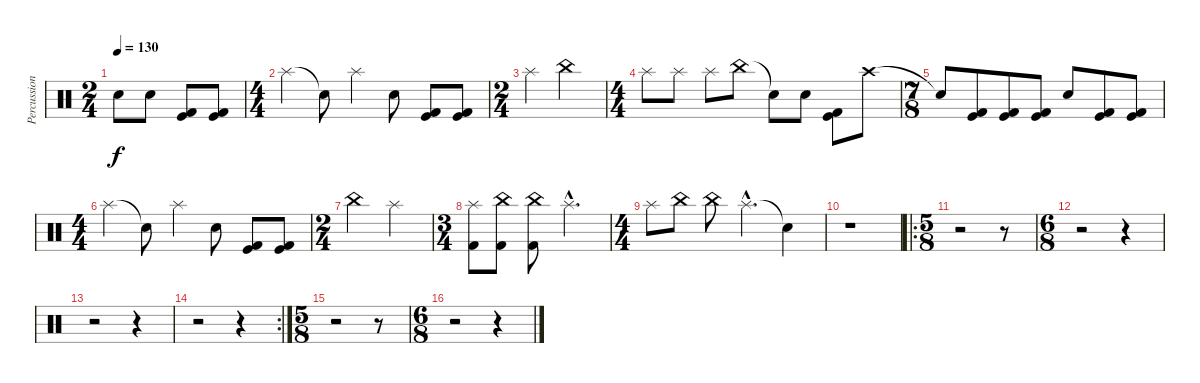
\track ("Percussion" "Percussion") {instrument percussion}
\staff {score}
\articulation defaults
\ts (2 4)
\tempo 130
\clef neutral
\ks c "Snare (hit)"{t}.8{dy f} "Snare (hit) 2".8
("Kick (hit)" "Kick (hit) 2").8 ("Kick (hit)" "Kick (hit) 2").8 |
\ts (4 4)
"Splash (hit)".4 "Snare (hit)"{t}.8 "Splash (hit)".4 "Snare (hit) 2".8 ("Kick (hit)" "Kick (hit) 2").8 ("Kick (hit)" "Kick (hit) 2").8 |
\ts (2 4)
"Splash (hit)".4 "China (hit)".4 |
\ts (4 4)
"Splash (hit)".8 "Splash (hit)".8 "Splash (hit)".8 "China (hit)".8 "Snare (hit)"{t}.8 "Snare (hit) 2".8 ("Kick (hit)" "Kick (hit) 2").8 "Crash high (hit)".8 |
\ts (7 8)
"Snare (hit)"{t}.8 ("Kick (hit)" "Kick (hit) 2").8 ("Kick (hit)" "Kick (hit) 2").8 ("Kick (hit)" "Kick (hit) 2").8 "Snare (hit) 2".8 ("Kick (hit)" "Kick (hit) 2").8 ("Kick (hit)" "Kick (hit) 2").8 |
\ts (4 4)
"Splash (hit)".4 "Snare (hit)"{t}.8 "Splash (hit)".4 "Snare (hit) 2".8 ("Kick (hit)" "Kick (hit) 2").8 ("Kick (hit)" "Kick (hit) 2").8 |
\ts (2 4)
"China (hit)".4 "Splash (hit)".4 |
\ts (3 4)
("Splash (hit)" "Kick (hit) 2").8 ("China (hit)" "Kick (hit) 2").8 ("China (hit)" "Kick (hit) 2").8 "Splash (hit)"{hac}.4{d} |
\ts (4 4)
"Splash (hit)".8 "China (hit)".8 "China (hit)".8 "Splash (hit)"{hac}.4{d} "Snare (hit)"{t}.4 |
r.1 |
\ro
\ts (5 8)
r.2 r.8 |
\ts (6 8)
r.2 r.4 |
r.2 r.4 |
\rc 2
r.2 r.4 |
\ts (5 8)
r.2 r.8 |
\ts (6 8)
r.2 r.4
